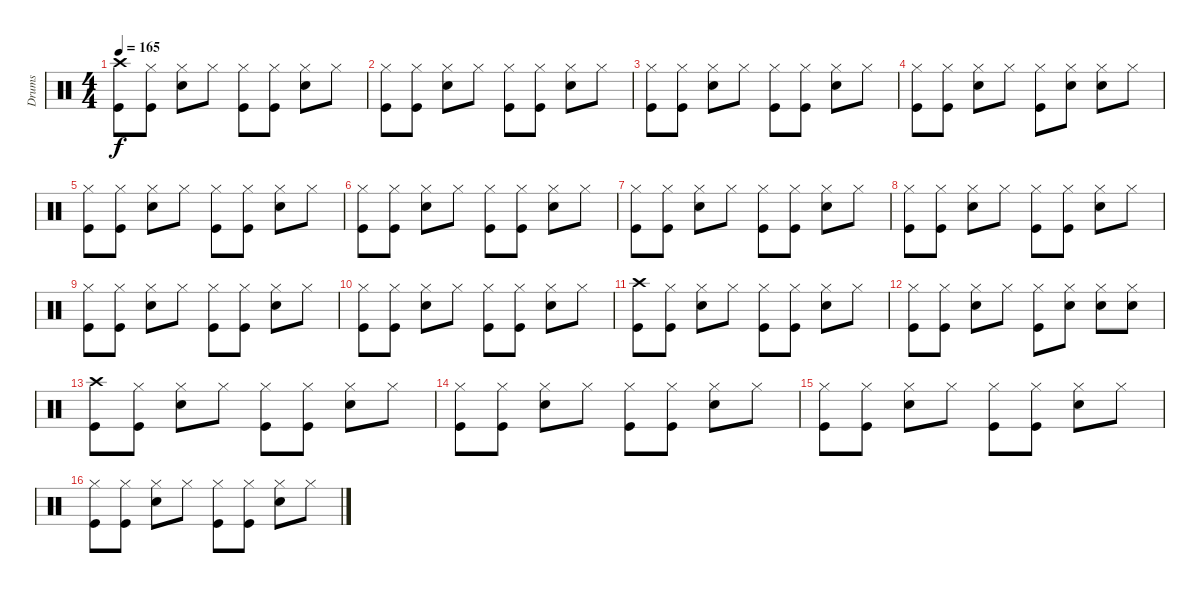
\track ("Drums" "Drums") {instrument percussion}
\staff {score}
\articulation defaults
\ts (4 4)
\tempo 165
\clef neutral
\ks c
("Crash high (hit)" "Kick (hit)").8{dy f} ("Hi-Hat (closed)" "Kick (hit)").8 ("Hi-Hat (closed)" "Snare (hit) 2").8 "Hi-Hat (closed)".8 ("Hi-Hat (closed)" "Kick (hit)").8 ("Hi-Hat (closed)" "Kick (hit)").8 ("Hi-Hat (closed)" "Snare (hit) 2").8 "Hi-Hat (closed)".8 |
("Hi-Hat (closed)" "Kick (hit)").8 ("Hi-Hat (closed)" "Kick (hit)").8 ("Hi-Hat (closed)" "Snare (hit) 2").8 "Hi-Hat (closed)".8 ("Hi-Hat (closed)" "Kick (hit)").8 ("Hi-Hat (closed)" "Kick (hit)").8 ("Hi-Hat (closed)" "Snare (hit) 2").8 "Hi-Hat (closed)".8 |
("Hi-Hat (closed)" "Kick (hit)").8 ("Hi-Hat (closed)" "Kick (hit)").8 ("Hi-Hat (closed)" "Snare (hit) 2").8 "Hi-Hat (closed)".8 ("Hi-Hat (closed)" "Kick (hit)").8 ("Hi-Hat (closed)" "Kick (hit)").8 ("Hi-Hat (closed)" "Snare (hit) 2").8 "Hi-Hat (closed)".8 |
("Hi-Hat (closed)" "Kick (hit)").8 ("Hi-Hat (closed)" "Kick (hit)").8 ("Hi-Hat (closed)" "Snare (hit) 2").8 "Hi-Hat (closed)".8 ("Hi-Hat (closed)" "Kick (hit)").8 ("Hi-Hat (closed)" "Snare (hit) 2").8 ("Hi-Hat (closed)" "Snare (hit) 2").8 "Hi-Hat (closed)".8 |
("Hi-Hat (closed)" "Kick (hit)").8 ("Hi-Hat (closed)" "Kick (hit)").8 ("Hi-Hat (closed)" "Snare (hit) 2").8 "Hi-Hat (closed)".8 ("Hi-Hat (closed)" "Kick (hit)").8 ("Hi-Hat (closed)" "Kick (hit)").8 ("Hi-Hat (closed)" "Snare (hit) 2").8 "Hi-Hat (closed)".8 |
("Hi-Hat (closed)" "Kick (hit)").8 ("Hi-Hat (closed)" "Kick (hit)").8 ("Hi-Hat (closed)" "Snare (hit) 2").8 "Hi-Hat (closed)".8 ("Hi-Hat (closed)" "Kick (hit)").8 ("Hi-Hat (closed)" "Kick (hit)").8 ("Hi-Hat (closed)" "Snare (hit) 2").8 "Hi-Hat (closed)".8 |
("Hi-Hat (closed)" "Kick (hit)").8 ("Hi-Hat (closed)" "Kick (hit)").8 ("Hi-Hat (closed)" "Snare (hit) 2").8 "Hi-Hat (closed)".8 ("Hi-Hat (closed)" "Kick (hit)").8 ("Hi-Hat (closed)" "Kick (hit)").8 ("Hi-Hat (closed)" "Snare (hit) 2").8 "Hi-Hat (closed)".8 |
("Hi-Hat (closed)" "Kick (hit)").8 ("Hi-Hat (closed)" "Kick (hit)").8 ("Hi-Hat (closed)" "Snare (hit) 2").8 "Hi-Hat (closed)".8 ("Hi-Hat (closed)" "Kick (hit)").8 ("Hi-Hat (closed)" "Kick (hit)").8 ("Hi-Hat (closed)" "Snare (hit) 2").8 "Hi-Hat (closed)".8 |
("Hi-Hat (closed)" "Kick (hit)").8 ("Hi-Hat (closed)" "Kick (hit)").8 ("Hi-Hat (closed)" "Snare (hit) 2").8 "Hi-Hat (closed)".8 ("Hi-Hat (closed)" "Kick (hit)").8 ("Hi-Hat (closed)" "Kick (hit)").8 ("Hi-Hat (closed)" "Snare (hit) 2").8 "Hi-Hat (closed)".8 |
("Hi-Hat (closed)" "Kick (hit)").8 ("Hi-Hat (closed)" "Kick (hit)").8 ("Hi-Hat (closed)" "Snare (hit) 2").8 "Hi-Hat (closed)".8 ("Hi-Hat (closed)" "Kick (hit)").8 ("Hi-Hat (closed)" "Kick (hit)").8 ("Hi-Hat (closed)" "Snare (hit) 2").8 "Hi-Hat (closed)".8 |
("Crash high (hit)" "Kick (hit)").8 ("Hi-Hat (closed)" "Kick (hit)").8 ("Hi-Hat (closed)" "Snare (hit) 2").8 "Hi-Hat (closed)".8 ("Hi-Hat (closed)" "Kick (hit)").8 ("Hi-Hat (closed)" "Kick (hit)").8 ("Hi-Hat (closed)" "Snare (hit) 2").8 "Hi-Hat (closed)".8 |
("Hi-Hat (closed)" "Kick (hit)").8 ("Hi-Hat (closed)" "Kick (hit)").8 ("Hi-Hat (closed)" "Snare (hit) 2").8 "Hi-Hat (closed)".8 ("Hi-Hat (closed)" "Kick (hit)").8 ("Hi-Hat (closed)" "Snare (hit) 2").8 ("Hi-Hat (closed)" "Snare (hit) 2").8 ("Hi-Hat (closed)" "Snare (hit) 2").8 |
("Crash high (hit)" "Kick (hit)").8 ("Hi-Hat (closed)" "Kick (hit)").8 ("Hi-Hat (closed)" "Snare (hit) 2").8 "Hi-Hat (closed)".8 ("Hi-Hat (closed)" "Kick (hit)").8 ("Hi-Hat (closed)" "Kick (hit)").8 ("Hi-Hat (closed)" "Snare (hit) 2").8 "Hi-Hat (closed)".8 |
("Hi-Hat (closed)" "Kick (hit)").8 ("Hi-Hat (closed)" "Kick (hit)").8 ("Hi-Hat (closed)" "Snare (hit) 2").8 "Hi-Hat (closed)".8 ("Hi-Hat (closed)" "Kick (hit)").8 ("Hi-Hat (closed)" "Kick (hit)").8 ("Hi-Hat (closed)" "Snare (hit) 2").8 "Hi-Hat (closed)".8 |
("Hi-Hat (closed)" "Kick (hit)").8 ("Hi-Hat (closed)" "Kick (hit)").8 ("Hi-Hat (closed)" "Snare (hit) 2").8 "Hi-Hat (closed)".8 ("Hi-Hat (closed)" "Kick (hit)").8 ("Hi-Hat (closed)" "Kick (hit)").8 ("Hi-Hat (closed)" "Snare (hit) 2").8 "Hi-Hat (closed)".8 |
("Hi-Hat (closed)" "Kick (hit)").8 ("Hi-Hat (closed)" "Kick (hit)").8 ("Hi-Hat (closed)" "Snare (hit) 2").8 "Hi-Hat (closed)".8 ("Hi-Hat (closed)" "Kick (hit)").8 ("Hi-Hat (closed)" "Kick (hit)").8 ("Hi-Hat (closed)" "Snare (hit) 2").8 "Hi-Hat (closed)".8
